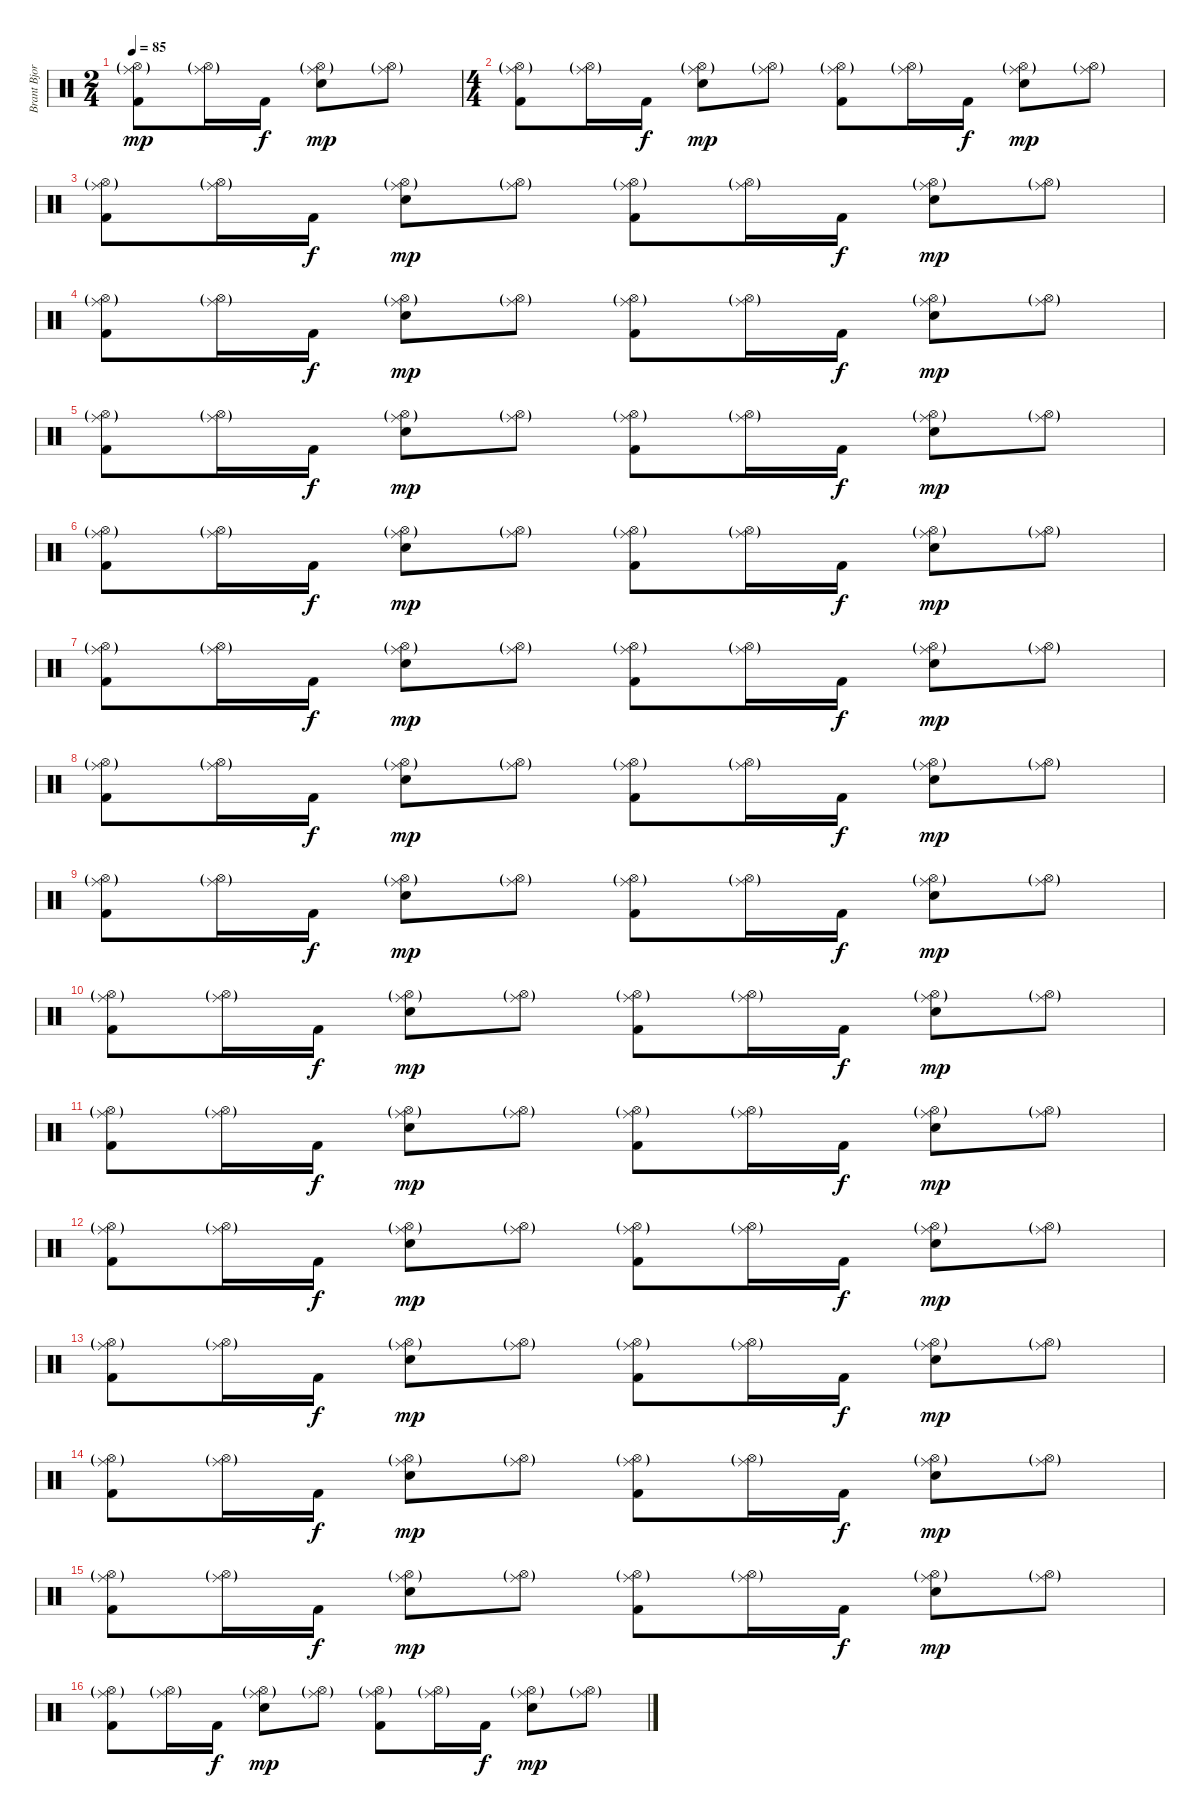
\track ("Brant Bjork" "Brant Bjor") {instrument percussion}
\staff {score}
\articulation defaults
\ts (2 4)
\tempo 85
\clef neutral
\ks c
("Hi-Hat (open)"{g} "Ride (middle)"{g} "Kick (hit) 2").8{dy mp volume 0} ("Hi-Hat (open)"{g} "Ride (middle)"{g}).16{volume 11} "Kick (hit) 2".16{dy f} ("Hi-Hat (open)"{g} "Ride (middle)"{g} "Electric Snare (hit)").8{dy mp} ("Hi-Hat (open)"{g} "Ride (middle)"{g}).8 |
\ts (4 4)
("Hi-Hat (open)"{g} "Ride (middle)"{g} "Kick (hit) 2").8 ("Hi-Hat (open)"{g} "Ride (middle)"{g}).16 "Kick (hit) 2".16{dy f} ("Hi-Hat (open)"{g} "Ride (middle)"{g} "Electric Snare (hit)").8{dy mp} ("Hi-Hat (open)"{g} "Ride (middle)"{g}).8 ("Hi-Hat (open)"{g} "Ride (middle)"{g} "Kick (hit) 2").8 ("Hi-Hat (open)"{g} "Ride (middle)"{g}).16 "Kick (hit) 2".16{dy f} ("Hi-Hat (open)"{g} "Ride (middle)"{g} "Electric Snare (hit)").8{dy mp} ("Hi-Hat (open)"{g} "Ride (middle)"{g}).8 |
("Hi-Hat (open)"{g} "Ride (middle)"{g} "Kick (hit) 2").8 ("Hi-Hat (open)"{g} "Ride (middle)"{g}).16 "Kick (hit) 2".16{dy f} ("Hi-Hat (open)"{g} "Ride (middle)"{g} "Electric Snare (hit)").8{dy mp} ("Hi-Hat (open)"{g} "Ride (middle)"{g}).8 ("Hi-Hat (open)"{g} "Ride (middle)"{g} "Kick (hit) 2").8 ("Hi-Hat (open)"{g} "Ride (middle)"{g}).16 "Kick (hit) 2".16{dy f} ("Hi-Hat (open)"{g} "Ride (middle)"{g} "Electric Snare (hit)").8{dy mp} ("Hi-Hat (open)"{g} "Ride (middle)"{g}).8 |
("Hi-Hat (open)"{g} "Ride (middle)"{g} "Kick (hit) 2").8 ("Hi-Hat (open)"{g} "Ride (middle)"{g}).16 "Kick (hit) 2".16{dy f} ("Hi-Hat (open)"{g} "Ride (middle)"{g} "Electric Snare (hit)").8{dy mp} ("Hi-Hat (open)"{g} "Ride (middle)"{g}).8 ("Hi-Hat (open)"{g} "Ride (middle)"{g} "Kick (hit) 2").8 ("Hi-Hat (open)"{g} "Ride (middle)"{g}).16 "Kick (hit) 2".16{dy f} ("Hi-Hat (open)"{g} "Ride (middle)"{g} "Electric Snare (hit)").8{dy mp} ("Hi-Hat (open)"{g} "Ride (middle)"{g}).8 |
("Hi-Hat (open)"{g} "Ride (middle)"{g} "Kick (hit) 2").8 ("Hi-Hat (open)"{g} "Ride (middle)"{g}).16 "Kick (hit) 2".16{dy f} ("Hi-Hat (open)"{g} "Ride (middle)"{g} "Electric Snare (hit)").8{dy mp} ("Hi-Hat (open)"{g} "Ride (middle)"{g}).8 ("Hi-Hat (open)"{g} "Ride (middle)"{g} "Kick (hit) 2").8 ("Hi-Hat (open)"{g} "Ride (middle)"{g}).16 "Kick (hit) 2".16{dy f} ("Hi-Hat (open)"{g} "Ride (middle)"{g} "Electric Snare (hit)").8{dy mp} ("Hi-Hat (open)"{g} "Ride (middle)"{g}).8 |
("Hi-Hat (open)"{g} "Ride (middle)"{g} "Kick (hit) 2").8 ("Hi-Hat (open)"{g} "Ride (middle)"{g}).16 "Kick (hit) 2".16{dy f} ("Hi-Hat (open)"{g} "Ride (middle)"{g} "Electric Snare (hit)").8{dy mp} ("Hi-Hat (open)"{g} "Ride (middle)"{g}).8 ("Hi-Hat (open)"{g} "Ride (middle)"{g} "Kick (hit) 2").8 ("Hi-Hat (open)"{g} "Ride (middle)"{g}).16 "Kick (hit) 2".16{dy f} ("Hi-Hat (open)"{g} "Ride (middle)"{g} "Electric Snare (hit)").8{dy mp} ("Hi-Hat (open)"{g} "Ride (middle)"{g}).8 |
("Hi-Hat (open)"{g} "Ride (middle)"{g} "Kick (hit) 2").8 ("Hi-Hat (open)"{g} "Ride (middle)"{g}).16 "Kick (hit) 2".16{dy f} ("Hi-Hat (open)"{g} "Ride (middle)"{g} "Electric Snare (hit)").8{dy mp} ("Hi-Hat (open)"{g} "Ride (middle)"{g}).8 ("Hi-Hat (open)"{g} "Ride (middle)"{g} "Kick (hit) 2").8 ("Hi-Hat (open)"{g} "Ride (middle)"{g}).16 "Kick (hit) 2".16{dy f} ("Hi-Hat (open)"{g} "Ride (middle)"{g} "Electric Snare (hit)").8{dy mp} ("Hi-Hat (open)"{g} "Ride (middle)"{g}).8 |
("Hi-Hat (open)"{g} "Ride (middle)"{g} "Kick (hit) 2").8 ("Hi-Hat (open)"{g} "Ride (middle)"{g}).16 "Kick (hit) 2".16{dy f} ("Hi-Hat (open)"{g} "Ride (middle)"{g} "Electric Snare (hit)").8{dy mp} ("Hi-Hat (open)"{g} "Ride (middle)"{g}).8 ("Hi-Hat (open)"{g} "Ride (middle)"{g} "Kick (hit) 2").8 ("Hi-Hat (open)"{g} "Ride (middle)"{g}).16 "Kick (hit) 2".16{dy f} ("Hi-Hat (open)"{g} "Ride (middle)"{g} "Electric Snare (hit)").8{dy mp} ("Hi-Hat (open)"{g} "Ride (middle)"{g}).8 |
("Hi-Hat (open)"{g} "Ride (middle)"{g} "Kick (hit) 2").8 ("Hi-Hat (open)"{g} "Ride (middle)"{g}).16 "Kick (hit) 2".16{dy f} ("Hi-Hat (open)"{g} "Ride (middle)"{g} "Electric Snare (hit)").8{dy mp} ("Hi-Hat (open)"{g} "Ride (middle)"{g}).8 ("Hi-Hat (open)"{g} "Ride (middle)"{g} "Kick (hit) 2").8 ("Hi-Hat (open)"{g} "Ride (middle)"{g}).16 "Kick (hit) 2".16{dy f} ("Hi-Hat (open)"{g} "Ride (middle)"{g} "Electric Snare (hit)").8{dy mp} ("Hi-Hat (open)"{g} "Ride (middle)"{g}).8 |
("Hi-Hat (open)"{g} "Ride (middle)"{g} "Kick (hit) 2").8 ("Hi-Hat (open)"{g} "Ride (middle)"{g}).16 "Kick (hit) 2".16{dy f} ("Hi-Hat (open)"{g} "Ride (middle)"{g} "Electric Snare (hit)").8{dy mp} ("Hi-Hat (open)"{g} "Ride (middle)"{g}).8 ("Hi-Hat (open)"{g} "Ride (middle)"{g} "Kick (hit) 2").8 ("Hi-Hat (open)"{g} "Ride (middle)"{g}).16 "Kick (hit) 2".16{dy f} ("Hi-Hat (open)"{g} "Ride (middle)"{g} "Electric Snare (hit)").8{dy mp} ("Hi-Hat (open)"{g} "Ride (middle)"{g}).8 |
("Hi-Hat (open)"{g} "Ride (middle)"{g} "Kick (hit) 2").8 ("Hi-Hat (open)"{g} "Ride (middle)"{g}).16 "Kick (hit) 2".16{dy f} ("Hi-Hat (open)"{g} "Ride (middle)"{g} "Electric Snare (hit)").8{dy mp} ("Hi-Hat (open)"{g} "Ride (middle)"{g}).8 ("Hi-Hat (open)"{g} "Ride (middle)"{g} "Kick (hit) 2").8 ("Hi-Hat (open)"{g} "Ride (middle)"{g}).16 "Kick (hit) 2".16{dy f} ("Hi-Hat (open)"{g} "Ride (middle)"{g} "Electric Snare (hit)").8{dy mp} ("Hi-Hat (open)"{g} "Ride (middle)"{g}).8 |
("Hi-Hat (open)"{g} "Ride (middle)"{g} "Kick (hit) 2").8 ("Hi-Hat (open)"{g} "Ride (middle)"{g}).16 "Kick (hit) 2".16{dy f} ("Hi-Hat (open)"{g} "Ride (middle)"{g} "Electric Snare (hit)").8{dy mp} ("Hi-Hat (open)"{g} "Ride (middle)"{g}).8 ("Hi-Hat (open)"{g} "Ride (middle)"{g} "Kick (hit) 2").8 ("Hi-Hat (open)"{g} "Ride (middle)"{g}).16 "Kick (hit) 2".16{dy f} ("Hi-Hat (open)"{g} "Ride (middle)"{g} "Electric Snare (hit)").8{dy mp} ("Hi-Hat (open)"{g} "Ride (middle)"{g}).8 |
("Hi-Hat (open)"{g} "Ride (middle)"{g} "Kick (hit) 2").8 ("Hi-Hat (open)"{g} "Ride (middle)"{g}).16 "Kick (hit) 2".16{dy f} ("Hi-Hat (open)"{g} "Ride (middle)"{g} "Electric Snare (hit)").8{dy mp} ("Hi-Hat (open)"{g} "Ride (middle)"{g}).8 ("Hi-Hat (open)"{g} "Ride (middle)"{g} "Kick (hit) 2").8 ("Hi-Hat (open)"{g} "Ride (middle)"{g}).16 "Kick (hit) 2".16{dy f} ("Hi-Hat (open)"{g} "Ride (middle)"{g} "Electric Snare (hit)").8{dy mp} ("Hi-Hat (open)"{g} "Ride (middle)"{g}).8 |
("Hi-Hat (open)"{g} "Ride (middle)"{g} "Kick (hit) 2").8 ("Hi-Hat (open)"{g} "Ride (middle)"{g}).16 "Kick (hit) 2".16{dy f} ("Hi-Hat (open)"{g} "Ride (middle)"{g} "Electric Snare (hit)").8{dy mp} ("Hi-Hat (open)"{g} "Ride (middle)"{g}).8 ("Hi-Hat (open)"{g} "Ride (middle)"{g} "Kick (hit) 2").8 ("Hi-Hat (open)"{g} "Ride (middle)"{g}).16 "Kick (hit) 2".16{dy f} ("Hi-Hat (open)"{g} "Ride (middle)"{g} "Electric Snare (hit)").8{dy mp} ("Hi-Hat (open)"{g} "Ride (middle)"{g}).8 |
("Hi-Hat (open)"{g} "Ride (middle)"{g} "Kick (hit) 2").8 ("Hi-Hat (open)"{g} "Ride (middle)"{g}).16 "Kick (hit) 2".16{dy f} ("Hi-Hat (open)"{g} "Ride (middle)"{g} "Electric Snare (hit)").8{dy mp} ("Hi-Hat (open)"{g} "Ride (middle)"{g}).8 ("Hi-Hat (open)"{g} "Ride (middle)"{g} "Kick (hit) 2").8 ("Hi-Hat (open)"{g} "Ride (middle)"{g}).16 "Kick (hit) 2".16{dy f} ("Hi-Hat (open)"{g} "Ride (middle)"{g} "Electric Snare (hit)").8{dy mp} ("Hi-Hat (open)"{g} "Ride (middle)"{g}).8 |
("Hi-Hat (open)"{g} "Ride (middle)"{g} "Kick (hit) 2").8 ("Hi-Hat (open)"{g} "Ride (middle)"{g}).16 "Kick (hit) 2".16{dy f} ("Hi-Hat (open)"{g} "Ride (middle)"{g} "Electric Snare (hit)").8{dy mp} ("Hi-Hat (open)"{g} "Ride (middle)"{g}).8 ("Hi-Hat (open)"{g} "Ride (middle)"{g} "Kick (hit) 2").8 ("Hi-Hat (open)"{g} "Ride (middle)"{g}).16 "Kick (hit) 2".16{dy f} ("Hi-Hat (open)"{g} "Ride (middle)"{g} "Electric Snare (hit)").8{dy mp} ("Hi-Hat (open)"{g} "Ride (middle)"{g}).8
